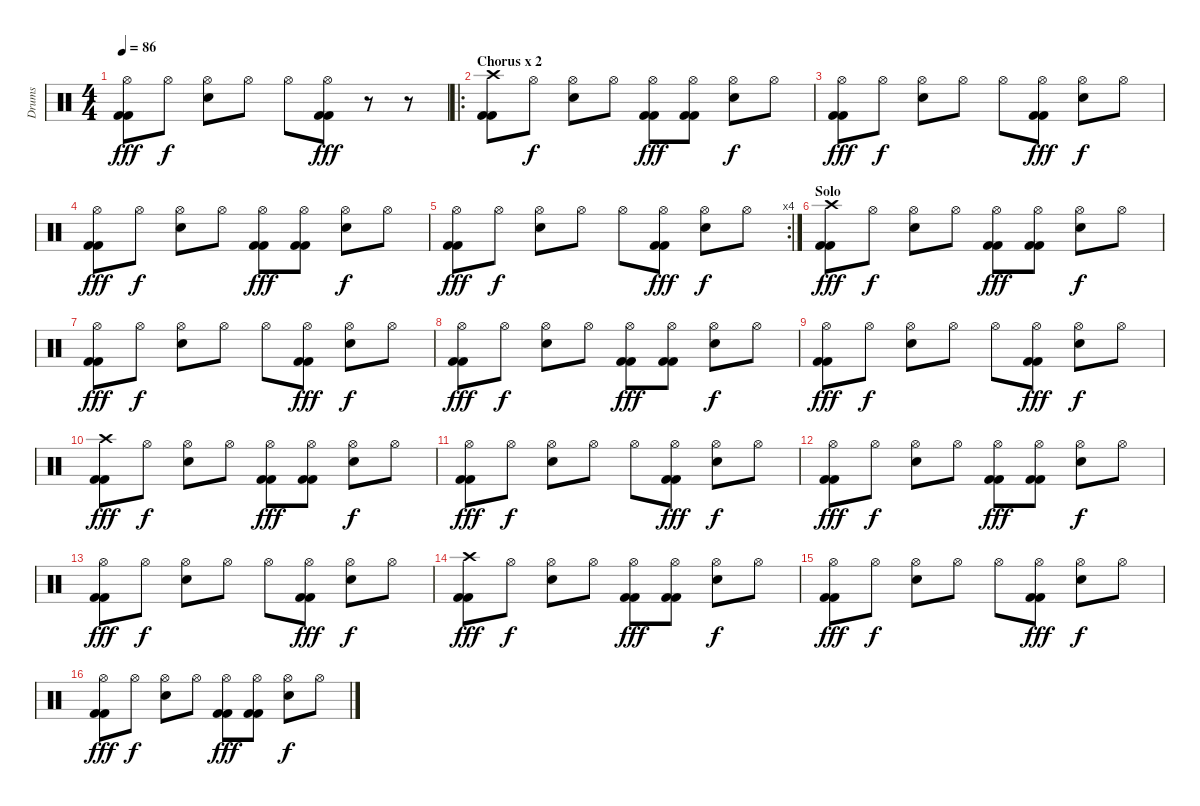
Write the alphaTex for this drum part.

\track ("Drums" "Drums") {instrument percussion}
\staff {score}
\articulation defaults
\ts (4 4)
\tempo 86
\clef neutral
\ks c
("Hi-Hat (open)" "Kick (hit) 2" "Kick (hit) 2").8{dy fff} "Hi-Hat (open)".8{dy f} ("Hi-Hat (open)" "Electric Snare (hit)").8 "Hi-Hat (open)".8 "Hi-Hat (open)".8 ("Hi-Hat (open)" "Kick (hit) 2" "Kick (hit) 2").8{dy fff} r.8 r.8 |
\ro
\section ("" "Chorus x 2")
("Crash high (hit)" "Kick (hit) 2" "Kick (hit) 2").8 "Hi-Hat (open)".8{dy f} ("Hi-Hat (open)" "Electric Snare (hit)").8 "Hi-Hat (open)".8 ("Hi-Hat (open)" "Kick (hit) 2" "Kick (hit) 2").8{dy fff} ("Hi-Hat (open)" "Kick (hit) 2" "Kick (hit) 2").8 ("Hi-Hat (open)" "Electric Snare (hit)").8{dy f} "Hi-Hat (open)".8 |
("Hi-Hat (open)" "Kick (hit) 2" "Kick (hit) 2").8{dy fff} "Hi-Hat (open)".8{dy f} ("Hi-Hat (open)" "Electric Snare (hit)").8 "Hi-Hat (open)".8 "Hi-Hat (open)".8 ("Hi-Hat (open)" "Kick (hit) 2" "Kick (hit) 2").8{dy fff} ("Hi-Hat (open)" "Electric Snare (hit)").8{dy f} "Hi-Hat (open)".8 |
("Hi-Hat (open)" "Kick (hit) 2" "Kick (hit) 2").8{dy fff} "Hi-Hat (open)".8{dy f} ("Hi-Hat (open)" "Electric Snare (hit)").8 "Hi-Hat (open)".8 ("Hi-Hat (open)" "Kick (hit) 2" "Kick (hit) 2").8{dy fff} ("Hi-Hat (open)" "Kick (hit) 2" "Kick (hit) 2").8 ("Hi-Hat (open)" "Electric Snare (hit)").8{dy f} "Hi-Hat (open)".8 |
\rc 4
("Hi-Hat (open)" "Kick (hit) 2" "Kick (hit) 2").8{dy fff} "Hi-Hat (open)".8{dy f} ("Hi-Hat (open)" "Electric Snare (hit)").8 "Hi-Hat (open)".8 "Hi-Hat (open)".8 ("Hi-Hat (open)" "Kick (hit) 2" "Kick (hit) 2").8{dy fff} ("Hi-Hat (open)" "Electric Snare (hit)").8{dy f} "Hi-Hat (open)".8 |
\section ("" "Solo")
("Crash high (hit)" "Kick (hit) 2" "Kick (hit) 2").8{dy fff} "Hi-Hat (open)".8{dy f} ("Hi-Hat (open)" "Electric Snare (hit)").8 "Hi-Hat (open)".8 ("Hi-Hat (open)" "Kick (hit) 2" "Kick (hit) 2").8{dy fff} ("Hi-Hat (open)" "Kick (hit) 2" "Kick (hit) 2").8 ("Hi-Hat (open)" "Electric Snare (hit)").8{dy f} "Hi-Hat (open)".8 |
("Hi-Hat (open)" "Kick (hit) 2" "Kick (hit) 2").8{dy fff} "Hi-Hat (open)".8{dy f} ("Hi-Hat (open)" "Electric Snare (hit)").8 "Hi-Hat (open)".8 "Hi-Hat (open)".8 ("Hi-Hat (open)" "Kick (hit) 2" "Kick (hit) 2").8{dy fff} ("Hi-Hat (open)" "Electric Snare (hit)").8{dy f} "Hi-Hat (open)".8 |
("Hi-Hat (open)" "Kick (hit) 2" "Kick (hit) 2").8{dy fff} "Hi-Hat (open)".8{dy f} ("Hi-Hat (open)" "Electric Snare (hit)").8 "Hi-Hat (open)".8 ("Hi-Hat (open)" "Kick (hit) 2" "Kick (hit) 2").8{dy fff} ("Hi-Hat (open)" "Kick (hit) 2" "Kick (hit) 2").8 ("Hi-Hat (open)" "Electric Snare (hit)").8{dy f} "Hi-Hat (open)".8 |
("Hi-Hat (open)" "Kick (hit) 2" "Kick (hit) 2").8{dy fff} "Hi-Hat (open)".8{dy f} ("Hi-Hat (open)" "Electric Snare (hit)").8 "Hi-Hat (open)".8 "Hi-Hat (open)".8 ("Hi-Hat (open)" "Kick (hit) 2" "Kick (hit) 2").8{dy fff} ("Hi-Hat (open)" "Electric Snare (hit)").8{dy f} "Hi-Hat (open)".8 |
("Crash high (hit)" "Kick (hit) 2" "Kick (hit) 2").8{dy fff} "Hi-Hat (open)".8{dy f} ("Hi-Hat (open)" "Electric Snare (hit)").8 "Hi-Hat (open)".8 ("Hi-Hat (open)" "Kick (hit) 2" "Kick (hit) 2").8{dy fff} ("Hi-Hat (open)" "Kick (hit) 2" "Kick (hit) 2").8 ("Hi-Hat (open)" "Electric Snare (hit)").8{dy f} "Hi-Hat (open)".8 |
("Hi-Hat (open)" "Kick (hit) 2" "Kick (hit) 2").8{dy fff} "Hi-Hat (open)".8{dy f} ("Hi-Hat (open)" "Electric Snare (hit)").8 "Hi-Hat (open)".8 "Hi-Hat (open)".8 ("Hi-Hat (open)" "Kick (hit) 2" "Kick (hit) 2").8{dy fff} ("Hi-Hat (open)" "Electric Snare (hit)").8{dy f} "Hi-Hat (open)".8 |
("Hi-Hat (open)" "Kick (hit) 2" "Kick (hit) 2").8{dy fff} "Hi-Hat (open)".8{dy f} ("Hi-Hat (open)" "Electric Snare (hit)").8 "Hi-Hat (open)".8 ("Hi-Hat (open)" "Kick (hit) 2" "Kick (hit) 2").8{dy fff} ("Hi-Hat (open)" "Kick (hit) 2" "Kick (hit) 2").8 ("Hi-Hat (open)" "Electric Snare (hit)").8{dy f} "Hi-Hat (open)".8 |
("Hi-Hat (open)" "Kick (hit) 2" "Kick (hit) 2").8{dy fff} "Hi-Hat (open)".8{dy f} ("Hi-Hat (open)" "Electric Snare (hit)").8 "Hi-Hat (open)".8 "Hi-Hat (open)".8 ("Hi-Hat (open)" "Kick (hit) 2" "Kick (hit) 2").8{dy fff} ("Hi-Hat (open)" "Electric Snare (hit)").8{dy f} "Hi-Hat (open)".8 |
("Crash high (hit)" "Kick (hit) 2" "Kick (hit) 2").8{dy fff} "Hi-Hat (open)".8{dy f} ("Hi-Hat (open)" "Electric Snare (hit)").8 "Hi-Hat (open)".8 ("Hi-Hat (open)" "Kick (hit) 2" "Kick (hit) 2").8{dy fff} ("Hi-Hat (open)" "Kick (hit) 2" "Kick (hit) 2").8 ("Hi-Hat (open)" "Electric Snare (hit)").8{dy f} "Hi-Hat (open)".8 |
("Hi-Hat (open)" "Kick (hit) 2" "Kick (hit) 2").8{dy fff} "Hi-Hat (open)".8{dy f} ("Hi-Hat (open)" "Electric Snare (hit)").8 "Hi-Hat (open)".8 "Hi-Hat (open)".8 ("Hi-Hat (open)" "Kick (hit) 2" "Kick (hit) 2").8{dy fff} ("Hi-Hat (open)" "Electric Snare (hit)").8{dy f} "Hi-Hat (open)".8 |
("Hi-Hat (open)" "Kick (hit) 2" "Kick (hit) 2").8{dy fff} "Hi-Hat (open)".8{dy f} ("Hi-Hat (open)" "Electric Snare (hit)").8 "Hi-Hat (open)".8 ("Hi-Hat (open)" "Kick (hit) 2" "Kick (hit) 2").8{dy fff} ("Hi-Hat (open)" "Kick (hit) 2" "Kick (hit) 2").8 ("Hi-Hat (open)" "Electric Snare (hit)").8{dy f} "Hi-Hat (open)".8
